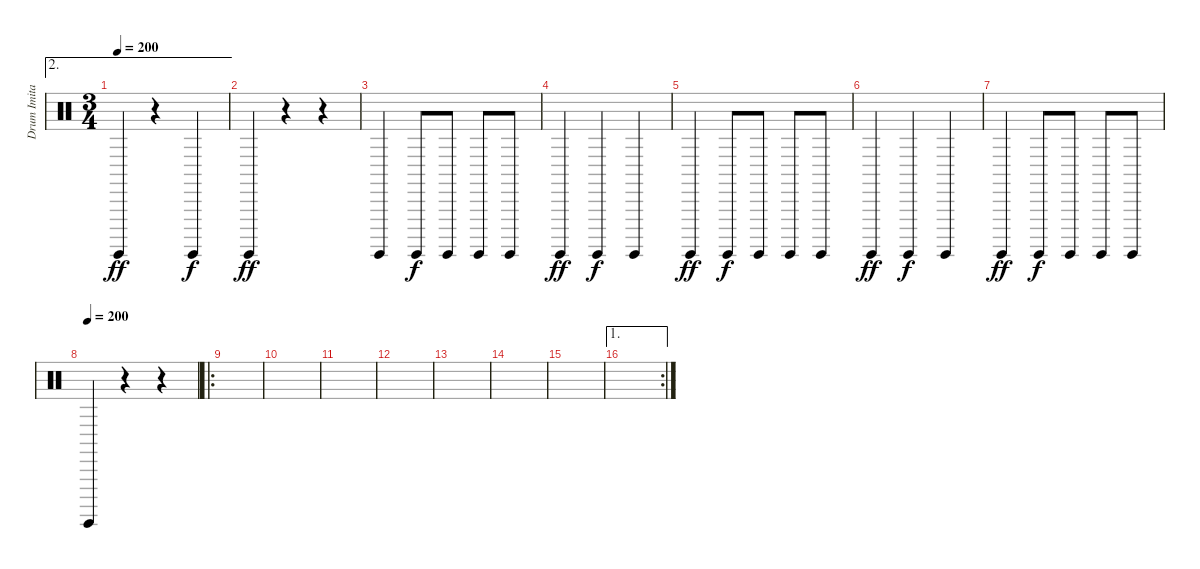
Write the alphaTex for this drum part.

\track ("Drum Imitation" "Drum Imita") {instrument percussion}
\staff {score}
\articulation defaults
\ae 2
\ts (3 4)
\tempo 200
\clef neutral
\ks c "Surdo (hit)".4{dy ff}
r.4 "Surdo (hit)".4{dy f} |
"Surdo (hit)".4{dy ff} r.4 r.4 |
"Surdo (hit)".4 "Surdo (hit)".8{dy f} "Surdo (hit)".8 "Surdo (hit)".8 "Surdo (hit)".8 |
"Surdo (hit)".4{dy ff} "Surdo (hit)".4{dy f} "Surdo (hit)".4 |
"Surdo (hit)".4{dy ff volume 9} "Surdo (hit)".8{dy f} "Surdo (hit)".8 "Surdo (hit)".8 "Surdo (hit)".8 |
"Surdo (hit)".4{dy ff} "Surdo (hit)".4{dy f} "Surdo (hit)".4 |
"Surdo (hit)".4{dy ff} "Surdo (hit)".8{dy f} "Surdo (hit)".8 "Surdo (hit)".8 "Surdo (hit)".8 |
\tempo (200)
"Surdo (hit)".4 r.4 r.4 |
\ro
|
|
|
|
|
|
|
\ae 1
\rc 2
